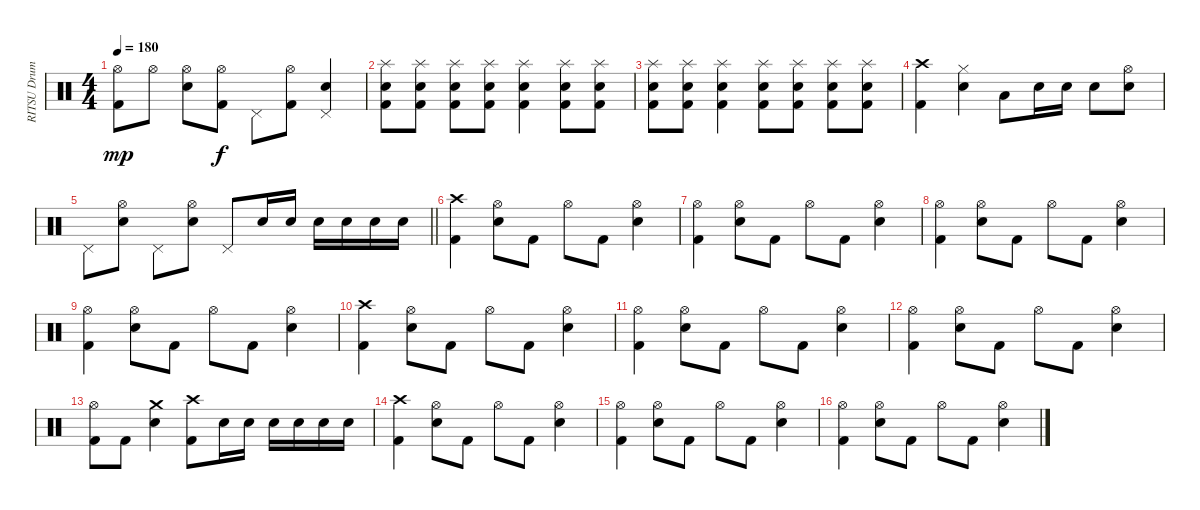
\track ("RITSU Drums" "RITSU Drum") {instrument percussion}
\staff {score}
\articulation defaults
\ts (4 4)
\tempo 180
\clef neutral
\ks c
("Hi-Hat (open)" "Kick (hit) 2").8{dy mp} "Hi-Hat (open)".8 ("Hi-Hat (open)" "Snare (hit) 2").8 ("Hi-Hat (open)" "Kick (hit) 2").8{dy f} "Pedal Hi-Hat (hit)".8 ("Hi-Hat (open)" "Kick (hit) 2").8 ("Pedal Hi-Hat (hit)" "Snare (hit) 2").4 |
("Splash (hit)" "Snare (hit) 2" "Kick (hit) 2").8 ("Splash (hit)" "Snare (hit) 2" "Kick (hit) 2").8 ("Splash (hit)" "Snare (hit) 2" "Kick (hit) 2").8 ("Splash (hit)" "Snare (hit) 2" "Kick (hit) 2").8 ("Splash (hit)" "Snare (hit) 2" "Kick (hit) 2").4 ("Splash (hit)" "Snare (hit) 2" "Kick (hit) 2").8 ("Splash (hit)" "Snare (hit) 2" "Kick (hit) 2").8 |
("Splash (hit)" "Snare (hit) 2" "Kick (hit) 2").8 ("Splash (hit)" "Snare (hit) 2" "Kick (hit) 2").8 ("Splash (hit)" "Snare (hit) 2" "Kick (hit) 2").4 ("Splash (hit)" "Snare (hit) 2" "Kick (hit) 2").8 ("Splash (hit)" "Snare (hit) 2" "Kick (hit) 2").8 ("Splash (hit)" "Snare (hit) 2" "Kick (hit) 2").8 ("Splash (hit)" "Snare (hit) 2" "Kick (hit) 2").8 |
("Crash high (hit)" "Kick (hit) 2").4 ("Hi-Hat (closed)" "Snare (hit) 2").4 "Low Tom (hit)".8 "Snare (hit) 2".16 "Snare (hit) 2".16 "Snare (hit) 2".8 ("Hi-Hat (open)" "Snare (hit) 2").8 |
\barLineRight lightlight "Pedal Hi-Hat (hit)".8
("Hi-Hat (open)" "Snare (hit) 2").8 "Pedal Hi-Hat (hit)".8 ("Hi-Hat (open)" "Snare (hit) 2").8 "Pedal Hi-Hat (hit)".8 "Snare (hit) 2".16 "Snare (hit) 2".16 "Snare (hit) 2".16 "Snare (hit) 2".16 "Snare (hit) 2".16 "Snare (hit) 2".16 |
("Crash high (hit)" "Kick (hit) 2").4 ("Hi-Hat (open)" "Snare (hit) 2").8 "Kick (hit) 2".8 "Hi-Hat (open)".8 "Kick (hit) 2".8 ("Hi-Hat (open)" "Snare (hit) 2").4 |
("Hi-Hat (open)" "Kick (hit) 2").4 ("Hi-Hat (open)" "Snare (hit) 2").8 "Kick (hit) 2".8 "Hi-Hat (open)".8 "Kick (hit) 2".8 ("Hi-Hat (open)" "Snare (hit) 2").4 |
("Hi-Hat (open)" "Kick (hit) 2").4 ("Hi-Hat (open)" "Snare (hit) 2").8 "Kick (hit) 2".8 "Hi-Hat (open)".8 "Kick (hit) 2".8 ("Hi-Hat (open)" "Snare (hit) 2").4 |
("Hi-Hat (open)" "Kick (hit) 2").4 ("Hi-Hat (open)" "Snare (hit) 2").8 "Kick (hit) 2".8 "Hi-Hat (open)".8 "Kick (hit) 2".8 ("Hi-Hat (open)" "Snare (hit) 2").4 |
("Crash high (hit)" "Kick (hit) 2").4 ("Hi-Hat (open)" "Snare (hit) 2").8 "Kick (hit) 2".8 "Hi-Hat (open)".8 "Kick (hit) 2".8 ("Hi-Hat (open)" "Snare (hit) 2").4 |
("Hi-Hat (open)" "Kick (hit) 2").4 ("Hi-Hat (open)" "Snare (hit) 2").8 "Kick (hit) 2".8 "Hi-Hat (open)".8 "Kick (hit) 2".8 ("Hi-Hat (open)" "Snare (hit) 2").4 |
("Hi-Hat (open)" "Kick (hit) 2").4 ("Hi-Hat (open)" "Snare (hit) 2").8 "Kick (hit) 2".8 "Hi-Hat (open)".8 "Kick (hit) 2".8 ("Hi-Hat (open)" "Snare (hit) 2").4 |
("Hi-Hat (open)" "Kick (hit) 2").8 "Kick (hit) 2".8 ("Crash medium (hit)" "Snare (hit) 2").4 ("Crash high (hit)" "Kick (hit) 2").8 "Snare (hit) 2".16 "Snare (hit) 2".16 "Snare (hit) 2".16 "Snare (hit) 2".16 "Snare (hit) 2".16 "Snare (hit) 2".16 |
("Crash high (hit)" "Kick (hit) 2").4 ("Hi-Hat (open)" "Snare (hit) 2").8 "Kick (hit) 2".8 "Hi-Hat (open)".8 "Kick (hit) 2".8 ("Hi-Hat (open)" "Snare (hit) 2").4 |
("Hi-Hat (open)" "Kick (hit) 2").4 ("Hi-Hat (open)" "Snare (hit) 2").8 "Kick (hit) 2".8 "Hi-Hat (open)".8 "Kick (hit) 2".8 ("Hi-Hat (open)" "Snare (hit) 2").4 |
("Hi-Hat (open)" "Kick (hit) 2").4 ("Hi-Hat (open)" "Snare (hit) 2").8 "Kick (hit) 2".8 "Hi-Hat (open)".8 "Kick (hit) 2".8 ("Hi-Hat (open)" "Snare (hit) 2").4
